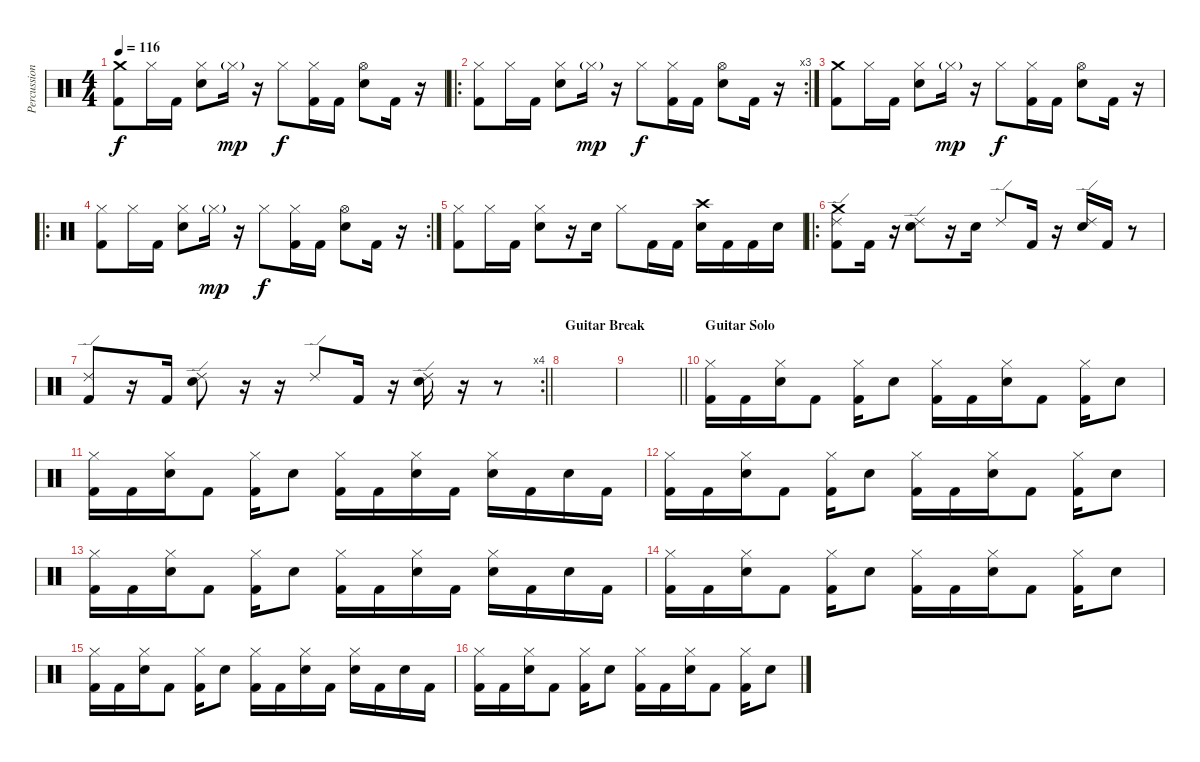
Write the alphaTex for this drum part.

\track ("Percussion" "Percussion") {instrument percussion}
\staff {score}
\articulation defaults
\ts (4 4)
\tempo 116
\clef neutral
\ks c
("Crash medium (hit)" "Kick (hit) 2").8{dy f} "Hi-Hat (closed)".16 "Kick (hit) 2".16 ("Hi-Hat (closed)" "Electric Snare (hit)").8 "Hi-Hat (closed)"{g}.16{dy mp} r.16 "Hi-Hat (closed)".8{dy f} ("Hi-Hat (closed)" "Kick (hit) 2").16 "Kick (hit) 2".16 ("Hi-Hat (open)" "Electric Snare (hit)").8 "Kick (hit) 2".16 r.16 |
\ro
\rc 3
("Hi-Hat (closed)" "Kick (hit) 2").8 "Hi-Hat (closed)".16 "Kick (hit) 2".16 ("Hi-Hat (closed)" "Electric Snare (hit)").8 "Hi-Hat (closed)"{g}.16{dy mp} r.16 "Hi-Hat (closed)".8{dy f} ("Hi-Hat (closed)" "Kick (hit) 2").16 "Kick (hit) 2".16 ("Hi-Hat (open)" "Electric Snare (hit)").8 "Kick (hit) 2".16 r.16 |
("Crash medium (hit)" "Kick (hit) 2").8 "Hi-Hat (closed)".16 "Kick (hit) 2".16 ("Hi-Hat (closed)" "Electric Snare (hit)").8 "Hi-Hat (closed)"{g}.16{dy mp} r.16 "Hi-Hat (closed)".8{dy f} ("Hi-Hat (closed)" "Kick (hit) 2").16 "Kick (hit) 2".16 ("Hi-Hat (open)" "Electric Snare (hit)").8 "Kick (hit) 2".16 r.16 |
\ro
\rc 2
("Hi-Hat (closed)" "Kick (hit) 2").8 "Hi-Hat (closed)".16 "Kick (hit) 2".16 ("Hi-Hat (closed)" "Electric Snare (hit)").8 "Hi-Hat (closed)"{g}.16{dy mp} r.16 "Hi-Hat (closed)".8{dy f} ("Hi-Hat (closed)" "Kick (hit) 2").16 "Kick (hit) 2".16 ("Hi-Hat (open)" "Electric Snare (hit)").8 "Kick (hit) 2".16 r.16 |
("Hi-Hat (closed)" "Kick (hit) 2").8 "Hi-Hat (closed)".16 "Kick (hit) 2".16 ("Hi-Hat (closed)" "Electric Snare (hit)").8 r.16 "Electric Snare (hit)".16 "Hi-Hat (closed)".8 "Kick (hit) 2".16 "Kick (hit) 2".16 ("Crash high (hit)" "Electric Snare (hit)").16 "Kick (hit) 2".16 "Kick (hit) 2".16 "Electric Snare (hit)".16 |
\ro
("Crash medium (hit)" "Ride (edge) 2" "Kick (hit) 2").8 "Kick (hit) 2".16 r.16 ("Ride (edge) 2" "Electric Snare (hit)").8 r.16 "Electric Snare (hit)".16 "Ride (edge) 2".8 "Kick (hit) 2".16 r.16 ("Ride (edge) 2" "Electric Snare (hit)").16 "Kick (hit) 2".16 r.8 |
\rc 4
\barLineRight lightlight
("Ride (edge) 2" "Kick (hit) 2").8 r.16 "Kick (hit) 2".16 ("Ride (edge) 2" "Electric Snare (hit)").8 r.16 r.16 "Ride (edge) 2".8 "Kick (hit) 2".16 r.16 ("Ride (edge) 2" "Electric Snare (hit)").16 r.16 r.8 |
\section ("" "Guitar Break")
|
\barLineRight lightlight
|
\section ("" "Guitar Solo")
("Hi-Hat (closed)" "Kick (hit) 2").16 "Kick (hit) 2".16 ("Hi-Hat (closed)" "Electric Snare (hit)").16 "Kick (hit) 2".8 ("Hi-Hat (closed)" "Kick (hit) 2").16 "Electric Snare (hit)".8 ("Hi-Hat (closed)" "Kick (hit) 2").16 "Kick (hit) 2".16 ("Hi-Hat (closed)" "Electric Snare (hit)").16 "Kick (hit) 2".8 ("Hi-Hat (closed)" "Kick (hit) 2").16 "Electric Snare (hit)".8 |
("Hi-Hat (closed)" "Kick (hit) 2").16 "Kick (hit) 2".16 ("Hi-Hat (closed)" "Electric Snare (hit)").16 "Kick (hit) 2".8 ("Hi-Hat (closed)" "Kick (hit) 2").16 "Electric Snare (hit)".8 ("Hi-Hat (closed)" "Kick (hit) 2").16 "Kick (hit) 2".16 ("Hi-Hat (closed)" "Electric Snare (hit)").16 "Kick (hit) 2".16 ("Hi-Hat (closed)" "Electric Snare (hit)").16 "Kick (hit) 2".16 "Electric Snare (hit)".16 "Kick (hit) 2".16 |
("Hi-Hat (closed)" "Kick (hit) 2").16 "Kick (hit) 2".16 ("Hi-Hat (closed)" "Electric Snare (hit)").16 "Kick (hit) 2".8 ("Hi-Hat (closed)" "Kick (hit) 2").16 "Electric Snare (hit)".8 ("Hi-Hat (closed)" "Kick (hit) 2").16 "Kick (hit) 2".16 ("Hi-Hat (closed)" "Electric Snare (hit)").16 "Kick (hit) 2".8 ("Hi-Hat (closed)" "Kick (hit) 2").16 "Electric Snare (hit)".8 |
("Hi-Hat (closed)" "Kick (hit) 2").16 "Kick (hit) 2".16 ("Hi-Hat (closed)" "Electric Snare (hit)").16 "Kick (hit) 2".8 ("Hi-Hat (closed)" "Kick (hit) 2").16 "Electric Snare (hit)".8 ("Hi-Hat (closed)" "Kick (hit) 2").16 "Kick (hit) 2".16 ("Hi-Hat (closed)" "Electric Snare (hit)").16 "Kick (hit) 2".16 ("Hi-Hat (closed)" "Electric Snare (hit)").16 "Kick (hit) 2".16 "Electric Snare (hit)".16 "Kick (hit) 2".16 |
("Hi-Hat (closed)" "Kick (hit) 2").16 "Kick (hit) 2".16 ("Hi-Hat (closed)" "Electric Snare (hit)").16 "Kick (hit) 2".8 ("Hi-Hat (closed)" "Kick (hit) 2").16 "Electric Snare (hit)".8 ("Hi-Hat (closed)" "Kick (hit) 2").16 "Kick (hit) 2".16 ("Hi-Hat (closed)" "Electric Snare (hit)").16 "Kick (hit) 2".8 ("Hi-Hat (closed)" "Kick (hit) 2").16 "Electric Snare (hit)".8 |
("Hi-Hat (closed)" "Kick (hit) 2").16 "Kick (hit) 2".16 ("Hi-Hat (closed)" "Electric Snare (hit)").16 "Kick (hit) 2".8 ("Hi-Hat (closed)" "Kick (hit) 2").16 "Electric Snare (hit)".8 ("Hi-Hat (closed)" "Kick (hit) 2").16 "Kick (hit) 2".16 ("Hi-Hat (closed)" "Electric Snare (hit)").16 "Kick (hit) 2".16 ("Hi-Hat (closed)" "Electric Snare (hit)").16 "Kick (hit) 2".16 "Electric Snare (hit)".16 "Kick (hit) 2".16 |
("Hi-Hat (closed)" "Kick (hit) 2").16 "Kick (hit) 2".16 ("Hi-Hat (closed)" "Electric Snare (hit)").16 "Kick (hit) 2".8 ("Hi-Hat (closed)" "Kick (hit) 2").16 "Electric Snare (hit)".8 ("Hi-Hat (closed)" "Kick (hit) 2").16 "Kick (hit) 2".16 ("Hi-Hat (closed)" "Electric Snare (hit)").16 "Kick (hit) 2".8 ("Hi-Hat (closed)" "Kick (hit) 2").16 "Electric Snare (hit)".8
